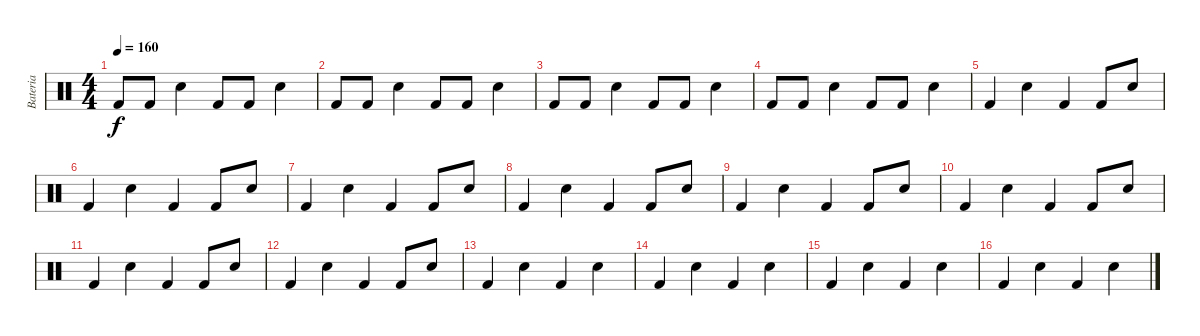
\track ("Bateria" "Bateria") {instrument percussion}
\staff {score}
\articulation defaults
\ts (4 4)
\tempo 160
\clef neutral
\ks c "Kick (hit) 2".8{dy f} "Kick (hit) 2".8 "Snare (hit) 2".4 "Kick (hit) 2".8 "Kick (hit) 2".8 "Snare (hit) 2".4
|
"Kick (hit) 2".8 "Kick (hit) 2".8 "Snare (hit) 2".4 "Kick (hit) 2".8 "Kick (hit) 2".8 "Snare (hit) 2".4 |
"Kick (hit) 2".8 "Kick (hit) 2".8 "Snare (hit) 2".4 "Kick (hit) 2".8 "Kick (hit) 2".8 "Snare (hit) 2".4 |
"Kick (hit) 2".8 "Kick (hit) 2".8 "Snare (hit) 2".4 "Kick (hit) 2".8 "Kick (hit) 2".8 "Snare (hit) 2".4 |
"Kick (hit) 2".4 "Snare (hit) 2".4 "Kick (hit) 2".4 "Kick (hit) 2".8 "Snare (hit) 2".8 |
"Kick (hit) 2".4 "Snare (hit) 2".4 "Kick (hit) 2".4 "Kick (hit) 2".8 "Snare (hit) 2".8 |
"Kick (hit) 2".4 "Snare (hit) 2".4 "Kick (hit) 2".4 "Kick (hit) 2".8 "Snare (hit) 2".8 |
"Kick (hit) 2".4 "Snare (hit) 2".4 "Kick (hit) 2".4 "Kick (hit) 2".8 "Snare (hit) 2".8 |
"Kick (hit) 2".4 "Snare (hit) 2".4 "Kick (hit) 2".4 "Kick (hit) 2".8 "Snare (hit) 2".8 |
"Kick (hit) 2".4 "Snare (hit) 2".4 "Kick (hit) 2".4 "Kick (hit) 2".8 "Snare (hit) 2".8 |
"Kick (hit) 2".4 "Snare (hit) 2".4 "Kick (hit) 2".4 "Kick (hit) 2".8 "Snare (hit) 2".8 |
"Kick (hit) 2".4 "Snare (hit) 2".4 "Kick (hit) 2".4 "Kick (hit) 2".8 "Snare (hit) 2".8 |
"Kick (hit) 2".4 "Snare (hit) 2".4 "Kick (hit) 2".4 "Snare (hit) 2".4 |
"Kick (hit) 2".4 "Snare (hit) 2".4 "Kick (hit) 2".4 "Snare (hit) 2".4 |
"Kick (hit) 2".4 "Snare (hit) 2".4 "Kick (hit) 2".4 "Snare (hit) 2".4 |
"Kick (hit) 2".4 "Snare (hit) 2".4 "Kick (hit) 2".4 "Snare (hit) 2".4
